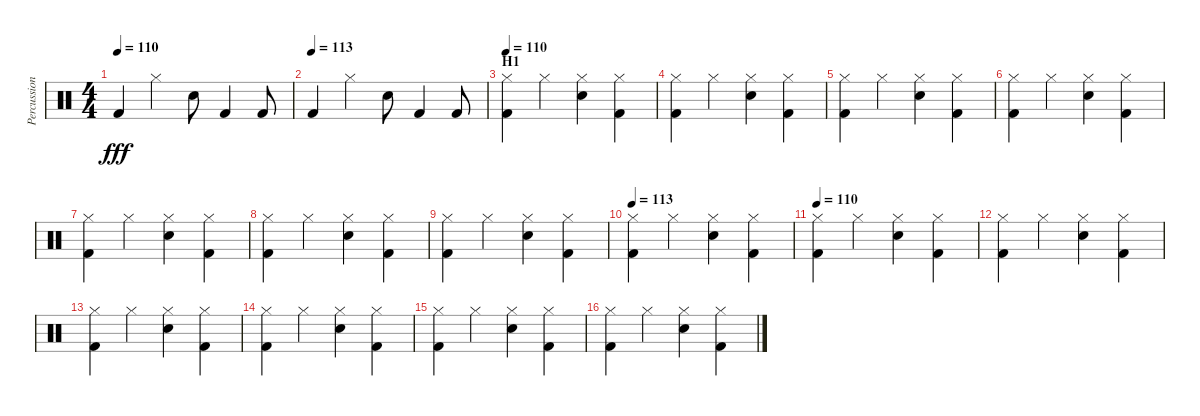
\track ("Percussion" "Percussion") {instrument percussion}
\staff {score}
\articulation defaults
\ts (4 4)
\tempo 110
\clef neutral
\ks c "Kick (hit) 2".4{dy fff} "Hi-Hat (closed)".4 "Electric Snare (hit)".8 "Kick (hit) 2".4 "Kick (hit) 2".8
|
\tempo (113)
"Kick (hit) 2".4 "Hi-Hat (closed)".4 "Electric Snare (hit)".8 "Kick (hit) 2".4 "Kick (hit) 2".8 |
\section ("" "H1")
\tempo 110
("Kick (hit) 2" "Hi-Hat (closed)").4 "Hi-Hat (closed)".4 ("Electric Snare (hit)" "Hi-Hat (closed)").4 ("Kick (hit) 2" "Hi-Hat (closed)").4 |
("Kick (hit) 2" "Hi-Hat (closed)").4 "Hi-Hat (closed)".4 ("Electric Snare (hit)" "Hi-Hat (closed)").4 ("Kick (hit) 2" "Hi-Hat (closed)").4 |
("Kick (hit) 2" "Hi-Hat (closed)").4 "Hi-Hat (closed)".4 ("Electric Snare (hit)" "Hi-Hat (closed)").4 ("Kick (hit) 2" "Hi-Hat (closed)").4 |
("Kick (hit) 2" "Hi-Hat (closed)").4 "Hi-Hat (closed)".4 ("Electric Snare (hit)" "Hi-Hat (closed)").4 ("Kick (hit) 2" "Hi-Hat (closed)").4 |
("Kick (hit) 2" "Hi-Hat (closed)").4 "Hi-Hat (closed)".4 ("Electric Snare (hit)" "Hi-Hat (closed)").4 ("Kick (hit) 2" "Hi-Hat (closed)").4 |
("Kick (hit) 2" "Hi-Hat (closed)").4 "Hi-Hat (closed)".4 ("Electric Snare (hit)" "Hi-Hat (closed)").4 ("Kick (hit) 2" "Hi-Hat (closed)").4 |
("Kick (hit) 2" "Hi-Hat (closed)").4 "Hi-Hat (closed)".4 ("Electric Snare (hit)" "Hi-Hat (closed)").4 ("Kick (hit) 2" "Hi-Hat (closed)").4 |
\tempo 113
("Kick (hit) 2" "Hi-Hat (closed)").4 "Hi-Hat (closed)".4 ("Electric Snare (hit)" "Hi-Hat (closed)").4 ("Kick (hit) 2" "Hi-Hat (closed)").4 |
\tempo 110
("Kick (hit) 2" "Hi-Hat (closed)").4 "Hi-Hat (closed)".4 ("Electric Snare (hit)" "Hi-Hat (closed)").4 ("Kick (hit) 2" "Hi-Hat (closed)").4 |
("Kick (hit) 2" "Hi-Hat (closed)").4 "Hi-Hat (closed)".4 ("Electric Snare (hit)" "Hi-Hat (closed)").4 ("Kick (hit) 2" "Hi-Hat (closed)").4 |
("Kick (hit) 2" "Hi-Hat (closed)").4 "Hi-Hat (closed)".4 ("Electric Snare (hit)" "Hi-Hat (closed)").4 ("Kick (hit) 2" "Hi-Hat (closed)").4 |
("Kick (hit) 2" "Hi-Hat (closed)").4 "Hi-Hat (closed)".4 ("Electric Snare (hit)" "Hi-Hat (closed)").4 ("Kick (hit) 2" "Hi-Hat (closed)").4 |
("Kick (hit) 2" "Hi-Hat (closed)").4 "Hi-Hat (closed)".4 ("Electric Snare (hit)" "Hi-Hat (closed)").4 ("Kick (hit) 2" "Hi-Hat (closed)").4 |
("Kick (hit) 2" "Hi-Hat (closed)").4 "Hi-Hat (closed)".4 ("Electric Snare (hit)" "Hi-Hat (closed)").4 ("Kick (hit) 2" "Hi-Hat (closed)").4
